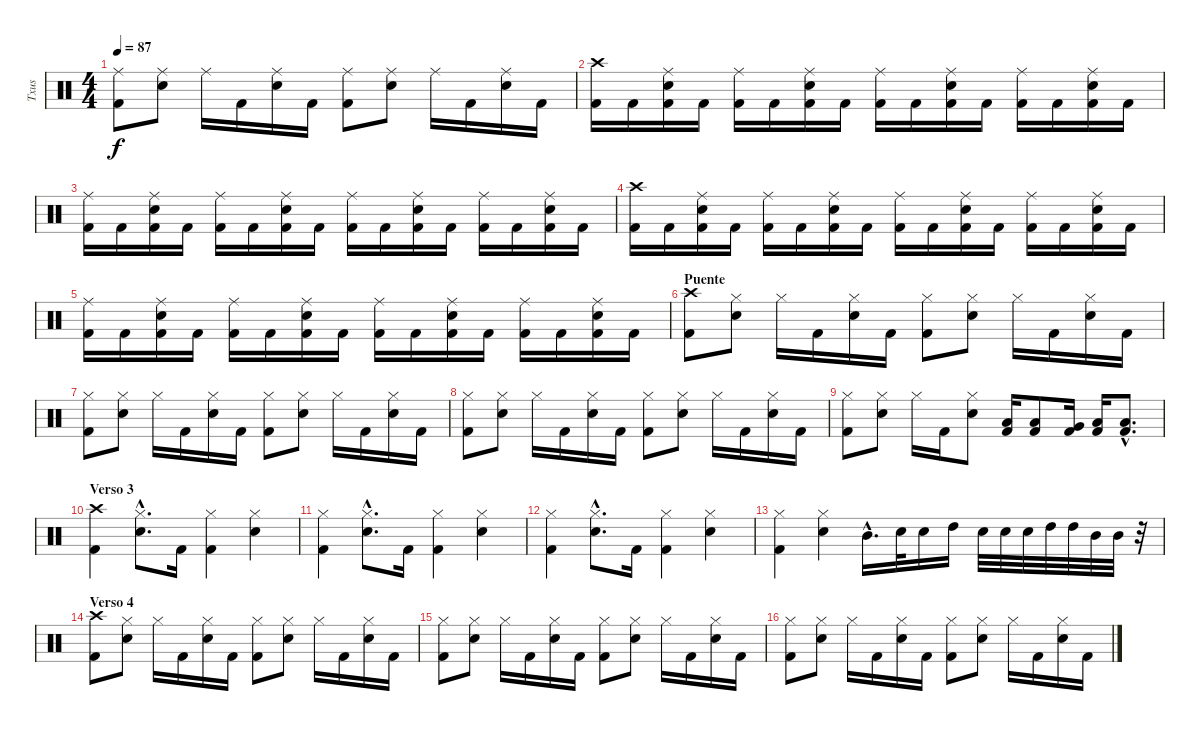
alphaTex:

\track ("Txus" "Txus") {instrument percussion}
\staff {score}
\articulation defaults
\ts (4 4)
\tempo 87
\clef neutral
\ks c
("Kick (hit) 2" "Ride (middle)").8{dy f} ("Electric Snare (hit)" "Ride (middle)").8 "Ride (middle)".16 "Kick (hit) 2".16 ("Electric Snare (hit)" "Ride (middle)").16 "Kick (hit) 2".16 ("Kick (hit) 2" "Ride (middle)").8 ("Electric Snare (hit)" "Ride (middle)").8 "Ride (middle)".16 "Kick (hit) 2".16 ("Electric Snare (hit)" "Ride (middle)").16 "Kick (hit) 2".16 |
("Kick (hit) 2" "Crash high (hit)").16 "Kick (hit) 2".16 ("Kick (hit) 2" "Electric Snare (hit)" "Ride (middle)").16 "Kick (hit) 2".16 ("Kick (hit) 2" "Ride (middle)").16 "Kick (hit) 2".16 ("Kick (hit) 2" "Electric Snare (hit)" "Ride (middle)").16 "Kick (hit) 2".16 ("Kick (hit) 2" "Ride (middle)").16 "Kick (hit) 2".16 ("Kick (hit) 2" "Electric Snare (hit)" "Ride (middle)").16 "Kick (hit) 2".16 ("Kick (hit) 2" "Ride (middle)").16 "Kick (hit) 2".16 ("Kick (hit) 2" "Electric Snare (hit)" "Ride (middle)").16 "Kick (hit) 2".16 |
("Kick (hit) 2" "Ride (middle)").16 "Kick (hit) 2".16 ("Kick (hit) 2" "Electric Snare (hit)" "Ride (middle)").16 "Kick (hit) 2".16 ("Kick (hit) 2" "Ride (middle)").16 "Kick (hit) 2".16 ("Kick (hit) 2" "Electric Snare (hit)" "Ride (middle)").16 "Kick (hit) 2".16 ("Kick (hit) 2" "Ride (middle)").16 "Kick (hit) 2".16 ("Kick (hit) 2" "Electric Snare (hit)" "Ride (middle)").16 "Kick (hit) 2".16 ("Kick (hit) 2" "Ride (middle)").16 "Kick (hit) 2".16 ("Kick (hit) 2" "Electric Snare (hit)" "Ride (middle)").16 "Kick (hit) 2".16 |
("Kick (hit) 2" "Crash high (hit)").16 "Kick (hit) 2".16 ("Kick (hit) 2" "Electric Snare (hit)" "Ride (middle)").16 "Kick (hit) 2".16 ("Kick (hit) 2" "Ride (middle)").16 "Kick (hit) 2".16 ("Kick (hit) 2" "Electric Snare (hit)" "Ride (middle)").16 "Kick (hit) 2".16 ("Kick (hit) 2" "Ride (middle)").16 "Kick (hit) 2".16 ("Kick (hit) 2" "Electric Snare (hit)" "Ride (middle)").16 "Kick (hit) 2".16 ("Kick (hit) 2" "Ride (middle)").16 "Kick (hit) 2".16 ("Kick (hit) 2" "Electric Snare (hit)" "Ride (middle)").16 "Kick (hit) 2".16 |
("Kick (hit) 2" "Ride (middle)").16 "Kick (hit) 2".16 ("Kick (hit) 2" "Electric Snare (hit)" "Ride (middle)").16 "Kick (hit) 2".16 ("Kick (hit) 2" "Ride (middle)").16 "Kick (hit) 2".16 ("Kick (hit) 2" "Electric Snare (hit)" "Ride (middle)").16 "Kick (hit) 2".16 ("Kick (hit) 2" "Ride (middle)").16 "Kick (hit) 2".16 ("Kick (hit) 2" "Electric Snare (hit)" "Ride (middle)").16 "Kick (hit) 2".16 ("Kick (hit) 2" "Ride (middle)").16 "Kick (hit) 2".16 ("Kick (hit) 2" "Electric Snare (hit)" "Ride (middle)").16 "Kick (hit) 2".16 |
\section ("" "Puente")
("Kick (hit) 2" "Crash high (hit)").8 ("Electric Snare (hit)" "Hi-Hat (closed)").8 "Hi-Hat (closed)".16 "Kick (hit) 2".16 ("Electric Snare (hit)" "Hi-Hat (closed)").16 "Kick (hit) 2".16 ("Kick (hit) 2" "Hi-Hat (closed)").8 ("Electric Snare (hit)" "Hi-Hat (closed)").8 "Hi-Hat (closed)".16 "Kick (hit) 2".16 ("Electric Snare (hit)" "Hi-Hat (closed)").16 "Kick (hit) 2".16 |
("Kick (hit) 2" "Hi-Hat (closed)").8 ("Electric Snare (hit)" "Hi-Hat (closed)").8 "Hi-Hat (closed)".16 "Kick (hit) 2".16 ("Electric Snare (hit)" "Hi-Hat (closed)").16 "Kick (hit) 2".16 ("Kick (hit) 2" "Hi-Hat (closed)").8 ("Electric Snare (hit)" "Hi-Hat (closed)").8 "Hi-Hat (closed)".16 "Kick (hit) 2".16 ("Electric Snare (hit)" "Hi-Hat (closed)").16 "Kick (hit) 2".16 |
("Kick (hit) 2" "Hi-Hat (closed)").8 ("Electric Snare (hit)" "Hi-Hat (closed)").8 "Hi-Hat (closed)".16 "Kick (hit) 2".16 ("Electric Snare (hit)" "Hi-Hat (closed)").16 "Kick (hit) 2".16 ("Kick (hit) 2" "Hi-Hat (closed)").8 ("Electric Snare (hit)" "Hi-Hat (closed)").8 "Hi-Hat (closed)".16 "Kick (hit) 2".16 ("Electric Snare (hit)" "Hi-Hat (closed)").16 "Kick (hit) 2".16 |
("Kick (hit) 2" "Hi-Hat (closed)").8 ("Electric Snare (hit)" "Hi-Hat (closed)").8 "Hi-Hat (closed)".16 "Kick (hit) 2".16 ("Electric Snare (hit)" "Hi-Hat (closed)").8 ("Kick (hit) 2" "Low Tom (hit)").16 ("Kick (hit) 2" "Low Tom (hit)").8 ("Kick (hit) 2" "Very Low Tom (hit)").16 ("Kick (hit) 2" "Low Tom (hit)").16 ("Kick (hit) 2"{hac} "Low Tom (hit)"{hac}).8{d} |
\section ("" "Verso 3")
("Kick (hit) 2" "Crash high (hit)").4 ("Electric Snare (hit)"{hac} "Hi-Hat (closed)"{hac}).8{d} "Kick (hit) 2".16 ("Kick (hit) 2" "Hi-Hat (closed)").4 ("Hi-Hat (closed)" "Electric Snare (hit)").4 |
("Kick (hit) 2" "Hi-Hat (closed)").4 ("Electric Snare (hit)"{hac} "Hi-Hat (closed)"{hac}).8{d} "Kick (hit) 2".16 ("Kick (hit) 2" "Hi-Hat (closed)").4 ("Hi-Hat (closed)" "Electric Snare (hit)").4 |
("Kick (hit) 2" "Hi-Hat (closed)").4 ("Electric Snare (hit)"{hac} "Hi-Hat (closed)"{hac}).8{d} "Kick (hit) 2".16 ("Kick (hit) 2" "Hi-Hat (closed)").4 ("Hi-Hat (closed)" "Electric Snare (hit)").4 |
("Kick (hit) 2" "Hi-Hat (closed)").4 ("Electric Snare (hit)" "Hi-Hat (closed)").4 "Mid Tom (hit)"{hac}.16{d} "Electric Snare (hit)".32 "Electric Snare (hit)".16 "High Tom (hit)".16 "Electric Snare (hit)".32 "Electric Snare (hit)".32 "Electric Snare (hit)".32 "High Tom (hit)".32 "High Tom (hit)".32 "Mid Tom (hit)".32 "Mid Tom (hit)".32 r.32 |
\section ("" "Verso 4")
("Kick (hit) 2" "Crash high (hit)").8 ("Electric Snare (hit)" "Hi-Hat (closed)").8 "Hi-Hat (closed)".16 "Kick (hit) 2".16 ("Electric Snare (hit)" "Hi-Hat (closed)").16 "Kick (hit) 2".16 ("Kick (hit) 2" "Hi-Hat (closed)").8 ("Electric Snare (hit)" "Hi-Hat (closed)").8 "Hi-Hat (closed)".16 "Kick (hit) 2".16 ("Electric Snare (hit)" "Hi-Hat (closed)").16 "Kick (hit) 2".16 |
("Kick (hit) 2" "Hi-Hat (closed)").8 ("Electric Snare (hit)" "Hi-Hat (closed)").8 "Hi-Hat (closed)".16 "Kick (hit) 2".16 ("Electric Snare (hit)" "Hi-Hat (closed)").16 "Kick (hit) 2".16 ("Kick (hit) 2" "Hi-Hat (closed)").8 ("Electric Snare (hit)" "Hi-Hat (closed)").8 "Hi-Hat (closed)".16 "Kick (hit) 2".16 ("Electric Snare (hit)" "Hi-Hat (closed)").16 "Kick (hit) 2".16 |
("Kick (hit) 2" "Hi-Hat (closed)").8 ("Electric Snare (hit)" "Hi-Hat (closed)").8 "Hi-Hat (closed)".16 "Kick (hit) 2".16 ("Electric Snare (hit)" "Hi-Hat (closed)").16 "Kick (hit) 2".16 ("Kick (hit) 2" "Hi-Hat (closed)").8 ("Electric Snare (hit)" "Hi-Hat (closed)").8 "Hi-Hat (closed)".16 "Kick (hit) 2".16 ("Electric Snare (hit)" "Hi-Hat (closed)").16 "Kick (hit) 2".16
